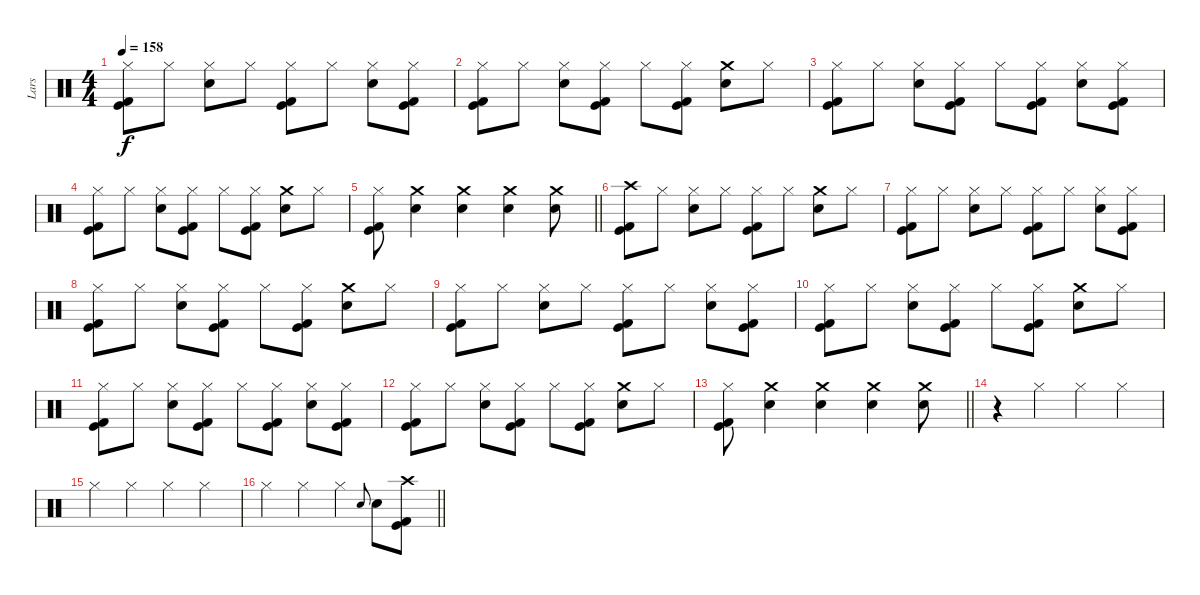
\track ("Lars" "Lars") {instrument percussion}
\staff {score}
\articulation defaults
\ts (4 4)
\tempo 158
\clef neutral
\ks c
("Hi-Hat (closed)" "Kick (hit)" "Kick (hit) 2").8{dy f} "Hi-Hat (closed)".8 ("Hi-Hat (closed)" "Electric Snare (hit)").8 "Hi-Hat (closed)".8 ("Hi-Hat (closed)" "Kick (hit)" "Kick (hit) 2").8 "Hi-Hat (closed)".8 ("Hi-Hat (closed)" "Electric Snare (hit)").8 ("Hi-Hat (closed)" "Kick (hit)" "Kick (hit) 2").8 |
("Hi-Hat (closed)" "Kick (hit)" "Kick (hit) 2").8 "Hi-Hat (closed)".8 ("Hi-Hat (closed)" "Electric Snare (hit)").8 ("Hi-Hat (closed)" "Kick (hit)" "Kick (hit) 2").8 "Hi-Hat (closed)".8 ("Hi-Hat (closed)" "Kick (hit)" "Kick (hit) 2").8 ("Crash medium (hit)" "Electric Snare (hit)").8 "Hi-Hat (closed)".8 |
("Hi-Hat (closed)" "Kick (hit)" "Kick (hit) 2").8 "Hi-Hat (closed)".8 ("Hi-Hat (closed)" "Electric Snare (hit)").8 ("Hi-Hat (closed)" "Kick (hit)" "Kick (hit) 2").8 "Hi-Hat (closed)".8 ("Hi-Hat (closed)" "Kick (hit)" "Kick (hit) 2").8 ("Hi-Hat (closed)" "Electric Snare (hit)").8 ("Hi-Hat (closed)" "Kick (hit)" "Kick (hit) 2").8 |
("Hi-Hat (closed)" "Kick (hit)" "Kick (hit) 2").8 "Hi-Hat (closed)".8 ("Hi-Hat (closed)" "Electric Snare (hit)").8 ("Hi-Hat (closed)" "Kick (hit)" "Kick (hit) 2").8 "Hi-Hat (closed)".8 ("Hi-Hat (closed)" "Kick (hit)" "Kick (hit) 2").8 ("Crash medium (hit)" "Electric Snare (hit)").8 "Hi-Hat (closed)".8 |
\barLineRight lightlight
("Hi-Hat (closed)" "Kick (hit)" "Kick (hit) 2").8 ("Crash medium (hit)" "Electric Snare (hit)").4 ("Crash medium (hit)" "Electric Snare (hit)").4 ("Crash medium (hit)" "Electric Snare (hit)").4 ("Crash medium (hit)" "Electric Snare (hit)").8 |
\section ("" "")
("Crash high (hit)" "Kick (hit)" "Kick (hit) 2").8 "Hi-Hat (closed)".8 ("Hi-Hat (closed)" "Electric Snare (hit)").8 "Hi-Hat (closed)".8 ("Hi-Hat (closed)" "Kick (hit)" "Kick (hit) 2").8 "Hi-Hat (closed)".8 ("Crash medium (hit)" "Electric Snare (hit)").8 "Hi-Hat (closed)".8 |
("Hi-Hat (closed)" "Kick (hit)" "Kick (hit) 2").8 "Hi-Hat (closed)".8 ("Hi-Hat (closed)" "Electric Snare (hit)").8 "Hi-Hat (closed)".8 ("Hi-Hat (closed)" "Kick (hit)" "Kick (hit) 2").8 "Hi-Hat (closed)".8 ("Hi-Hat (closed)" "Electric Snare (hit)").8 ("Hi-Hat (closed)" "Kick (hit)" "Kick (hit) 2").8 |
("Hi-Hat (closed)" "Kick (hit)" "Kick (hit) 2").8 "Hi-Hat (closed)".8 ("Hi-Hat (closed)" "Electric Snare (hit)").8 ("Hi-Hat (closed)" "Kick (hit)" "Kick (hit) 2").8 "Hi-Hat (closed)".8 ("Hi-Hat (closed)" "Kick (hit)" "Kick (hit) 2").8 ("Crash medium (hit)" "Electric Snare (hit)").8 "Hi-Hat (closed)".8 |
("Hi-Hat (closed)" "Kick (hit)" "Kick (hit) 2").8 "Hi-Hat (closed)".8 ("Hi-Hat (closed)" "Electric Snare (hit)").8 "Hi-Hat (closed)".8 ("Hi-Hat (closed)" "Kick (hit)" "Kick (hit) 2").8 "Hi-Hat (closed)".8 ("Hi-Hat (closed)" "Electric Snare (hit)").8 ("Hi-Hat (closed)" "Kick (hit)" "Kick (hit) 2").8 |
("Hi-Hat (closed)" "Kick (hit)" "Kick (hit) 2").8 "Hi-Hat (closed)".8 ("Hi-Hat (closed)" "Electric Snare (hit)").8 ("Hi-Hat (closed)" "Kick (hit)" "Kick (hit) 2").8 "Hi-Hat (closed)".8 ("Hi-Hat (closed)" "Kick (hit)" "Kick (hit) 2").8 ("Crash medium (hit)" "Electric Snare (hit)").8 "Hi-Hat (closed)".8 |
("Hi-Hat (closed)" "Kick (hit)" "Kick (hit) 2").8 "Hi-Hat (closed)".8 ("Hi-Hat (closed)" "Electric Snare (hit)").8 ("Hi-Hat (closed)" "Kick (hit)" "Kick (hit) 2").8 "Hi-Hat (closed)".8 ("Hi-Hat (closed)" "Kick (hit)" "Kick (hit) 2").8 ("Hi-Hat (closed)" "Electric Snare (hit)").8 ("Hi-Hat (closed)" "Kick (hit)" "Kick (hit) 2").8 |
("Hi-Hat (closed)" "Kick (hit)" "Kick (hit) 2").8 "Hi-Hat (closed)".8 ("Hi-Hat (closed)" "Electric Snare (hit)").8 ("Hi-Hat (closed)" "Kick (hit)" "Kick (hit) 2").8 "Hi-Hat (closed)".8 ("Hi-Hat (closed)" "Kick (hit)" "Kick (hit) 2").8 ("Crash medium (hit)" "Electric Snare (hit)").8 "Hi-Hat (closed)".8 |
\barLineRight lightlight
("Hi-Hat (closed)" "Kick (hit)" "Kick (hit) 2").8 ("Crash medium (hit)" "Electric Snare (hit)").4 ("Crash medium (hit)" "Electric Snare (hit)").4 ("Crash medium (hit)" "Electric Snare (hit)").4 ("Crash medium (hit)" "Electric Snare (hit)").8 |
\section ("" "")
r.4 "Hi-Hat (closed)".4 "Hi-Hat (closed)".4 "Hi-Hat (closed)".4 |
"Hi-Hat (closed)".4 "Hi-Hat (closed)".4 "Hi-Hat (closed)".4 "Hi-Hat (closed)".4 |
\barLineRight lightlight "Hi-Hat (closed)".4 "Hi-Hat (closed)".4 "Hi-Hat (closed)".4 "Electric Snare (hit)".8{gr onbeat} "Electric Snare (hit)".8
("Crash high (hit)" "Kick (hit)" "Kick (hit) 2").8
